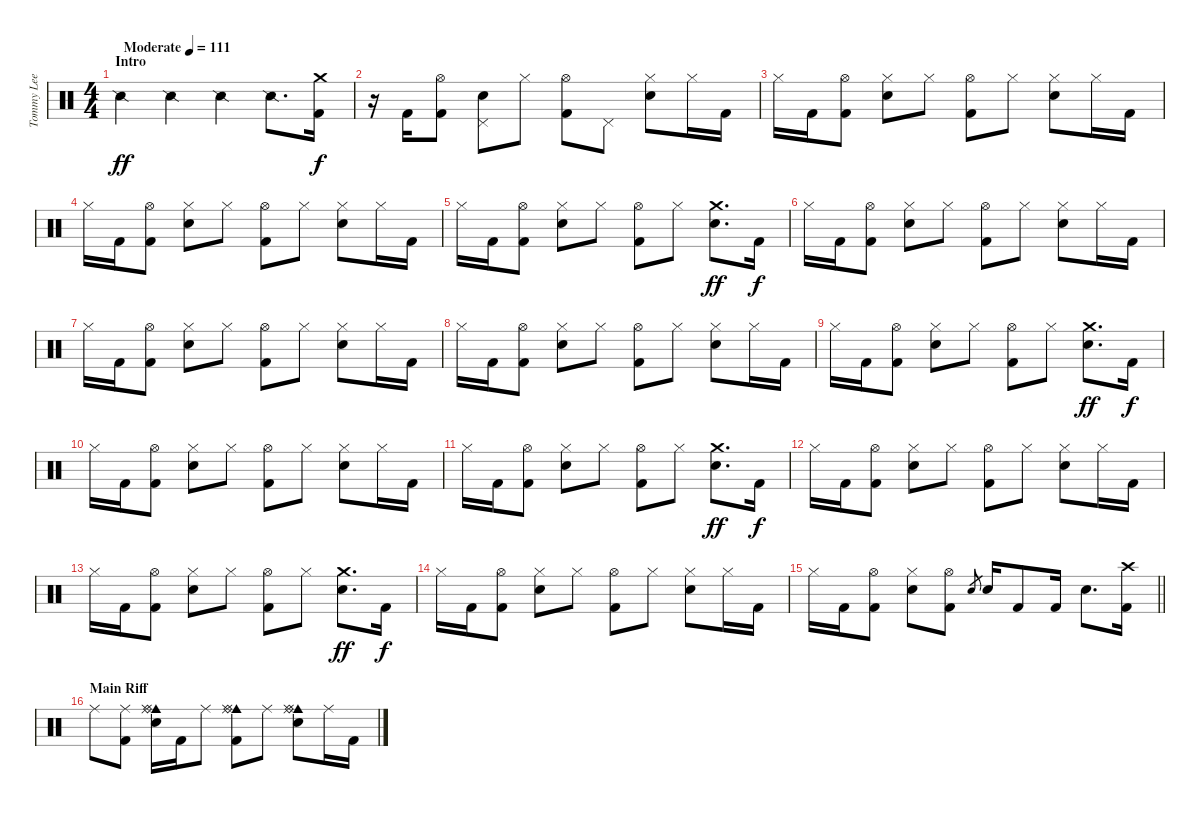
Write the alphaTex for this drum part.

\track ("Tommy Lee" "Tommy Lee") {instrument percussion}
\staff {score}
\articulation defaults
\ts (4 4)
\section ("" "Intro")
\tempo (111 "Moderate")
\clef neutral
\ks c "Snare (side stick) 2".4{dy ff} "Snare (side stick) 2".4 "Snare (side stick) 2".4 "Snare (side stick) 2".8{d}
("Crash medium (hit)" "Kick (hit) 2").16{dy f} |
r.16 "Kick (hit) 2".16 ("Hi-Hat (open)" "Kick (hit) 2").8 ("Pedal Hi-Hat (hit)" "Snare (hit) 2").8 "Hi-Hat (closed)".8 ("Hi-Hat (open)" "Kick (hit) 2").8 "Pedal Hi-Hat (hit)".8 ("Hi-Hat (closed)" "Snare (hit) 2").8 "Hi-Hat (closed)".16 "Kick (hit) 2".16 |
"Hi-Hat (closed)".16 "Kick (hit) 2".16 ("Hi-Hat (open)" "Kick (hit) 2").8 ("Hi-Hat (closed)" "Snare (hit) 2").8 "Hi-Hat (closed)".8 ("Hi-Hat (open)" "Kick (hit) 2").8 "Hi-Hat (closed)".8 ("Hi-Hat (closed)" "Snare (hit) 2").8 "Hi-Hat (closed)".16 "Kick (hit) 2".16 |
"Hi-Hat (closed)".16 "Kick (hit) 2".16 ("Hi-Hat (open)" "Kick (hit) 2").8 ("Hi-Hat (closed)" "Snare (hit) 2").8 "Hi-Hat (closed)".8 ("Hi-Hat (open)" "Kick (hit) 2").8 "Hi-Hat (closed)".8 ("Hi-Hat (closed)" "Snare (hit) 2").8 "Hi-Hat (closed)".16 "Kick (hit) 2".16 |
"Hi-Hat (closed)".16 "Kick (hit) 2".16 ("Hi-Hat (open)" "Kick (hit) 2").8 ("Hi-Hat (closed)" "Snare (hit) 2").8 "Hi-Hat (closed)".8 ("Hi-Hat (open)" "Kick (hit) 2").8 "Hi-Hat (closed)".8 ("Crash medium (hit)" "Snare (hit) 2").8{d dy ff} "Kick (hit) 2".16{dy f} |
"Hi-Hat (closed)".16 "Kick (hit) 2".16 ("Hi-Hat (open)" "Kick (hit) 2").8 ("Hi-Hat (closed)" "Snare (hit) 2").8 "Hi-Hat (closed)".8 ("Hi-Hat (open)" "Kick (hit) 2").8 "Hi-Hat (closed)".8 ("Hi-Hat (closed)" "Snare (hit) 2").8 "Hi-Hat (closed)".16 "Kick (hit) 2".16 |
"Hi-Hat (closed)".16 "Kick (hit) 2".16 ("Hi-Hat (open)" "Kick (hit) 2").8 ("Hi-Hat (closed)" "Snare (hit) 2").8 "Hi-Hat (closed)".8 ("Hi-Hat (open)" "Kick (hit) 2").8 "Hi-Hat (closed)".8 ("Hi-Hat (closed)" "Snare (hit) 2").8 "Hi-Hat (closed)".16 "Kick (hit) 2".16 |
"Hi-Hat (closed)".16 "Kick (hit) 2".16 ("Hi-Hat (open)" "Kick (hit) 2").8 ("Hi-Hat (closed)" "Snare (hit) 2").8 "Hi-Hat (closed)".8 ("Hi-Hat (open)" "Kick (hit) 2").8 "Hi-Hat (closed)".8 ("Hi-Hat (closed)" "Snare (hit) 2").8 "Hi-Hat (closed)".16 "Kick (hit) 2".16 |
"Hi-Hat (closed)".16 "Kick (hit) 2".16 ("Hi-Hat (open)" "Kick (hit) 2").8 ("Hi-Hat (closed)" "Snare (hit) 2").8 "Hi-Hat (closed)".8 ("Hi-Hat (open)" "Kick (hit) 2").8 "Hi-Hat (closed)".8 ("Crash medium (hit)" "Snare (hit) 2").8{d dy ff} "Kick (hit) 2".16{dy f} |
"Hi-Hat (closed)".16 "Kick (hit) 2".16 ("Hi-Hat (open)" "Kick (hit) 2").8 ("Hi-Hat (closed)" "Snare (hit) 2").8 "Hi-Hat (closed)".8 ("Hi-Hat (open)" "Kick (hit) 2").8 "Hi-Hat (closed)".8 ("Hi-Hat (closed)" "Snare (hit) 2").8 "Hi-Hat (closed)".16 "Kick (hit) 2".16 |
"Hi-Hat (closed)".16 "Kick (hit) 2".16 ("Hi-Hat (open)" "Kick (hit) 2").8 ("Hi-Hat (closed)" "Snare (hit) 2").8 "Hi-Hat (closed)".8 ("Hi-Hat (open)" "Kick (hit) 2").8 "Hi-Hat (closed)".8 ("Crash medium (hit)" "Snare (hit) 2").8{d dy ff} "Kick (hit) 2".16{dy f} |
"Hi-Hat (closed)".16 "Kick (hit) 2".16 ("Hi-Hat (open)" "Kick (hit) 2").8 ("Hi-Hat (closed)" "Snare (hit) 2").8 "Hi-Hat (closed)".8 ("Hi-Hat (open)" "Kick (hit) 2").8 "Hi-Hat (closed)".8 ("Hi-Hat (closed)" "Snare (hit) 2").8 "Hi-Hat (closed)".16 "Kick (hit) 2".16 |
"Hi-Hat (closed)".16 "Kick (hit) 2".16 ("Hi-Hat (open)" "Kick (hit) 2").8 ("Hi-Hat (closed)" "Snare (hit) 2").8 "Hi-Hat (closed)".8 ("Hi-Hat (open)" "Kick (hit) 2").8 "Hi-Hat (closed)".8 ("Crash medium (hit)" "Snare (hit) 2").8{d dy ff} "Kick (hit) 2".16{dy f} |
"Hi-Hat (closed)".16 "Kick (hit) 2".16 ("Hi-Hat (open)" "Kick (hit) 2").8 ("Hi-Hat (closed)" "Snare (hit) 2").8 "Hi-Hat (closed)".8 ("Hi-Hat (open)" "Kick (hit) 2").8 "Hi-Hat (closed)".8 ("Hi-Hat (closed)" "Snare (hit) 2").8 "Hi-Hat (closed)".16 "Kick (hit) 2".16 |
\barLineRight lightlight "Hi-Hat (closed)".16 "Kick (hit) 2".16
("Hi-Hat (open)" "Kick (hit) 2").8 ("Hi-Hat (closed)" "Snare (hit) 2").8 ("Hi-Hat (open)" "Kick (hit) 2").8 "Snare (hit) 2".8{gr} "Snare (hit) 2".16 "Kick (hit) 2".8 "Kick (hit) 2".16 "Snare (hit) 2".8{d} ("Crash high (hit)" "Kick (hit) 2").16 |
\section ("" "Main Riff")
"Ride (middle)".8 ("Ride (middle)" "Kick (hit) 2").8 ("Cowbell medium (hit)" "Ride (middle)" "Ride (bell)" "Snare (hit) 2").16 "Kick (hit) 2".16 "Ride (middle)".8 ("Cowbell medium (hit)" "Ride (middle)" "Ride (bell)" "Kick (hit) 2").8 "Ride (middle)".8 ("Cowbell medium (hit)" "Ride (middle)" "Ride (bell)" "Snare (hit) 2").8 "Ride (middle)".16 "Kick (hit) 2".16
